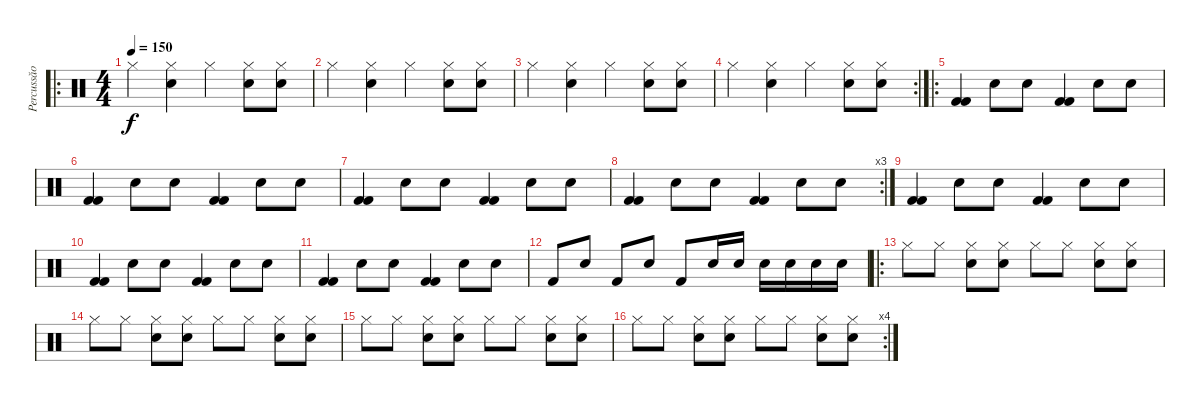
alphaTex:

\track ("Percussăo" "Percussăo") {instrument percussion}
\staff {score}
\articulation defaults
\ro
\ts (4 4)
\tempo 150
\clef neutral
\ks c "Hi-Hat (closed)".4{dy f}
("Hi-Hat (closed)" "Snare (hit) 2").4 "Hi-Hat (closed)".4 ("Hi-Hat (closed)" "Snare (hit) 2").8 ("Hi-Hat (closed)" "Snare (hit) 2").8 |
"Hi-Hat (closed)".4 ("Hi-Hat (closed)" "Snare (hit) 2").4 "Hi-Hat (closed)".4 ("Hi-Hat (closed)" "Snare (hit) 2").8 ("Hi-Hat (closed)" "Snare (hit) 2").8 |
"Hi-Hat (closed)".4 ("Hi-Hat (closed)" "Snare (hit) 2").4 "Hi-Hat (closed)".4 ("Hi-Hat (closed)" "Snare (hit) 2").8 ("Hi-Hat (closed)" "Snare (hit) 2").8 |
\rc 2 "Hi-Hat (closed)".4
("Hi-Hat (closed)" "Snare (hit) 2").4 "Hi-Hat (closed)".4 ("Hi-Hat (closed)" "Snare (hit) 2").8 ("Hi-Hat (closed)" "Snare (hit) 2").8 |
\ro
("Kick (hit) 2" "Kick (hit) 2").4 "Snare (hit) 2".8 "Snare (hit) 2".8 ("Kick (hit) 2" "Kick (hit) 2").4 "Snare (hit) 2".8 "Snare (hit) 2".8 |
("Kick (hit) 2" "Kick (hit) 2").4 "Snare (hit) 2".8 "Snare (hit) 2".8 ("Kick (hit) 2" "Kick (hit) 2").4 "Snare (hit) 2".8 "Snare (hit) 2".8 |
("Kick (hit) 2" "Kick (hit) 2").4 "Snare (hit) 2".8 "Snare (hit) 2".8 ("Kick (hit) 2" "Kick (hit) 2").4 "Snare (hit) 2".8 "Snare (hit) 2".8 |
\rc 3
("Kick (hit) 2" "Kick (hit) 2").4 "Snare (hit) 2".8 "Snare (hit) 2".8 ("Kick (hit) 2" "Kick (hit) 2").4 "Snare (hit) 2".8 "Snare (hit) 2".8 |
("Kick (hit) 2" "Kick (hit) 2").4 "Snare (hit) 2".8 "Snare (hit) 2".8 ("Kick (hit) 2" "Kick (hit) 2").4 "Snare (hit) 2".8 "Snare (hit) 2".8 |
("Kick (hit) 2" "Kick (hit) 2").4 "Snare (hit) 2".8 "Snare (hit) 2".8 ("Kick (hit) 2" "Kick (hit) 2").4 "Snare (hit) 2".8 "Snare (hit) 2".8 |
("Kick (hit) 2" "Kick (hit) 2").4 "Snare (hit) 2".8 "Snare (hit) 2".8 ("Kick (hit) 2" "Kick (hit) 2").4 "Snare (hit) 2".8 "Snare (hit) 2".8 |
"Kick (hit) 2".8 "Snare (hit) 2".8 "Kick (hit) 2".8 "Snare (hit) 2".8 "Kick (hit) 2".8 "Snare (hit) 2".16 "Snare (hit) 2".16 "Snare (hit) 2".16 "Snare (hit) 2".16 "Snare (hit) 2".16 "Snare (hit) 2".16 |
\ro "Hi-Hat (closed)".8 "Hi-Hat (closed)".8
("Hi-Hat (closed)" "Snare (hit) 2").8 ("Hi-Hat (closed)" "Snare (hit) 2").8 "Hi-Hat (closed)".8 "Hi-Hat (closed)".8 ("Hi-Hat (closed)" "Snare (hit) 2").8 ("Hi-Hat (closed)" "Snare (hit) 2").8 |
"Hi-Hat (closed)".8 "Hi-Hat (closed)".8 ("Hi-Hat (closed)" "Snare (hit) 2").8 ("Hi-Hat (closed)" "Snare (hit) 2").8 "Hi-Hat (closed)".8 "Hi-Hat (closed)".8 ("Hi-Hat (closed)" "Snare (hit) 2").8 ("Hi-Hat (closed)" "Snare (hit) 2").8 |
"Hi-Hat (closed)".8 "Hi-Hat (closed)".8 ("Hi-Hat (closed)" "Snare (hit) 2").8 ("Hi-Hat (closed)" "Snare (hit) 2").8 "Hi-Hat (closed)".8 "Hi-Hat (closed)".8 ("Hi-Hat (closed)" "Snare (hit) 2").8 ("Hi-Hat (closed)" "Snare (hit) 2").8 |
\rc 4 "Hi-Hat (closed)".8 "Hi-Hat (closed)".8
("Hi-Hat (closed)" "Snare (hit) 2").8 ("Hi-Hat (closed)" "Snare (hit) 2").8 "Hi-Hat (closed)".8 "Hi-Hat (closed)".8 ("Hi-Hat (closed)" "Snare (hit) 2").8 ("Hi-Hat (closed)" "Snare (hit) 2").8
